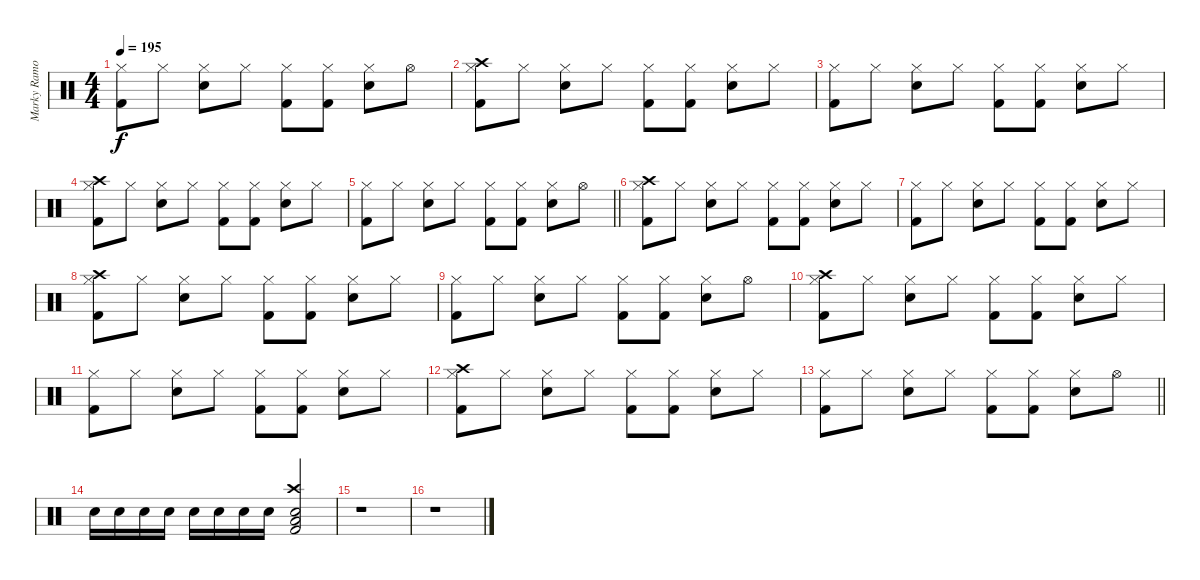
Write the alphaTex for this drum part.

\track ("Marky Ramones" "Marky Ramo") {instrument percussion}
\staff {score}
\articulation defaults
\ts (4 4)
\tempo 195
\clef neutral
\ks c
("Hi-Hat (closed)" "Kick (hit) 2").8{dy f} "Hi-Hat (closed)".8 ("Hi-Hat (closed)" "Electric Snare (hit)").8 "Hi-Hat (closed)".8 ("Hi-Hat (closed)" "Kick (hit) 2").8 ("Hi-Hat (closed)" "Kick (hit) 2").8 ("Hi-Hat (closed)" "Electric Snare (hit)").8 "Hi-Hat (open)".8 |
("Hi-Hat (closed)" "Kick (hit) 2" "Crash high (hit)").8 "Hi-Hat (closed)".8 ("Hi-Hat (closed)" "Electric Snare (hit)").8 "Hi-Hat (closed)".8 ("Hi-Hat (closed)" "Kick (hit) 2").8 ("Hi-Hat (closed)" "Kick (hit) 2").8 ("Hi-Hat (closed)" "Electric Snare (hit)").8 "Hi-Hat (closed)".8 |
("Hi-Hat (closed)" "Kick (hit) 2").8 "Hi-Hat (closed)".8 ("Hi-Hat (closed)" "Electric Snare (hit)").8 "Hi-Hat (closed)".8 ("Hi-Hat (closed)" "Kick (hit) 2").8 ("Hi-Hat (closed)" "Kick (hit) 2").8 ("Hi-Hat (closed)" "Electric Snare (hit)").8 "Hi-Hat (closed)".8 |
("Hi-Hat (closed)" "Kick (hit) 2" "Crash high (hit)").8 "Hi-Hat (closed)".8 ("Hi-Hat (closed)" "Electric Snare (hit)").8 "Hi-Hat (closed)".8 ("Hi-Hat (closed)" "Kick (hit) 2").8 ("Hi-Hat (closed)" "Kick (hit) 2").8 ("Hi-Hat (closed)" "Electric Snare (hit)").8 "Hi-Hat (closed)".8 |
\barLineRight lightlight
("Hi-Hat (closed)" "Kick (hit) 2").8 "Hi-Hat (closed)".8 ("Hi-Hat (closed)" "Electric Snare (hit)").8 "Hi-Hat (closed)".8 ("Hi-Hat (closed)" "Kick (hit) 2").8 ("Hi-Hat (closed)" "Kick (hit) 2").8 ("Hi-Hat (closed)" "Electric Snare (hit)").8 "Hi-Hat (open)".8 |
("Hi-Hat (closed)" "Kick (hit) 2" "Crash high (hit)").8 "Hi-Hat (closed)".8 ("Hi-Hat (closed)" "Electric Snare (hit)").8 "Hi-Hat (closed)".8 ("Hi-Hat (closed)" "Kick (hit) 2").8 ("Hi-Hat (closed)" "Kick (hit) 2").8 ("Hi-Hat (closed)" "Electric Snare (hit)").8 "Hi-Hat (closed)".8 |
("Hi-Hat (closed)" "Kick (hit) 2").8 "Hi-Hat (closed)".8 ("Hi-Hat (closed)" "Electric Snare (hit)").8 "Hi-Hat (closed)".8 ("Hi-Hat (closed)" "Kick (hit) 2").8 ("Hi-Hat (closed)" "Kick (hit) 2").8 ("Hi-Hat (closed)" "Electric Snare (hit)").8 "Hi-Hat (closed)".8 |
("Hi-Hat (closed)" "Kick (hit) 2" "Crash high (hit)").8 "Hi-Hat (closed)".8 ("Hi-Hat (closed)" "Electric Snare (hit)").8 "Hi-Hat (closed)".8 ("Hi-Hat (closed)" "Kick (hit) 2").8 ("Hi-Hat (closed)" "Kick (hit) 2").8 ("Hi-Hat (closed)" "Electric Snare (hit)").8 "Hi-Hat (closed)".8 |
("Hi-Hat (closed)" "Kick (hit) 2").8 "Hi-Hat (closed)".8 ("Hi-Hat (closed)" "Electric Snare (hit)").8 "Hi-Hat (closed)".8 ("Hi-Hat (closed)" "Kick (hit) 2").8 ("Hi-Hat (closed)" "Kick (hit) 2").8 ("Hi-Hat (closed)" "Electric Snare (hit)").8 "Hi-Hat (open)".8 |
("Hi-Hat (closed)" "Kick (hit) 2" "Crash high (hit)").8 "Hi-Hat (closed)".8 ("Hi-Hat (closed)" "Electric Snare (hit)").8 "Hi-Hat (closed)".8 ("Hi-Hat (closed)" "Kick (hit) 2").8 ("Hi-Hat (closed)" "Kick (hit) 2").8 ("Hi-Hat (closed)" "Electric Snare (hit)").8 "Hi-Hat (closed)".8 |
("Hi-Hat (closed)" "Kick (hit) 2").8 "Hi-Hat (closed)".8 ("Hi-Hat (closed)" "Electric Snare (hit)").8 "Hi-Hat (closed)".8 ("Hi-Hat (closed)" "Kick (hit) 2").8 ("Hi-Hat (closed)" "Kick (hit) 2").8 ("Hi-Hat (closed)" "Electric Snare (hit)").8 "Hi-Hat (closed)".8 |
("Hi-Hat (closed)" "Kick (hit) 2" "Crash high (hit)").8 "Hi-Hat (closed)".8 ("Hi-Hat (closed)" "Electric Snare (hit)").8 "Hi-Hat (closed)".8 ("Hi-Hat (closed)" "Kick (hit) 2").8 ("Hi-Hat (closed)" "Kick (hit) 2").8 ("Hi-Hat (closed)" "Electric Snare (hit)").8 "Hi-Hat (closed)".8 |
\barLineRight lightlight
("Hi-Hat (closed)" "Kick (hit) 2").8 "Hi-Hat (closed)".8 ("Hi-Hat (closed)" "Electric Snare (hit)").8 "Hi-Hat (closed)".8 ("Hi-Hat (closed)" "Kick (hit) 2").8 ("Hi-Hat (closed)" "Kick (hit) 2").8 ("Hi-Hat (closed)" "Electric Snare (hit)").8 "Hi-Hat (open)".8 |
"Electric Snare (hit)".16 "Electric Snare (hit)".16 "Electric Snare (hit)".16 "Electric Snare (hit)".16 "Electric Snare (hit)".16 "Electric Snare (hit)".16 "Electric Snare (hit)".16 "Electric Snare (hit)".16 ("Low Tom (hit)" "Electric Snare (hit)" "Kick (hit) 2" "Crash high (hit)").2 |
r.1 |
r.1
